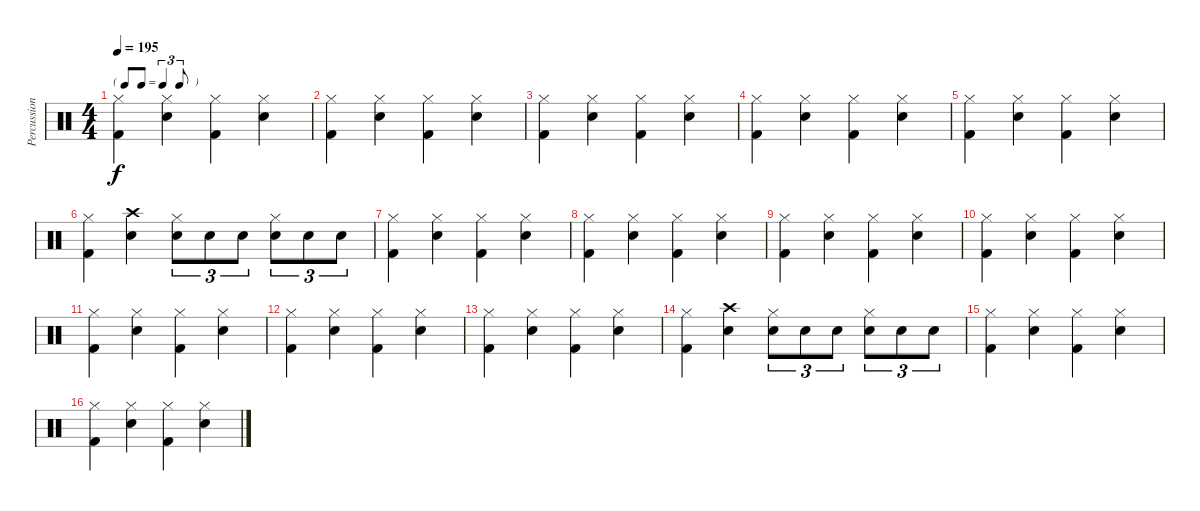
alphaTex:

\track ("Percussions" "Percussion") {instrument percussion}
\staff {score}
\articulation defaults
\ts (4 4)
\tf triplet8th
\tempo 195
\clef neutral
\ks c
("Hi-Hat (closed)" "Kick (hit) 2").4{dy f} ("Snare (hit) 2" "Hi-Hat (closed)").4 ("Hi-Hat (closed)" "Kick (hit) 2").4 ("Snare (hit) 2" "Hi-Hat (closed)").4 |
("Hi-Hat (closed)" "Kick (hit) 2").4 ("Snare (hit) 2" "Hi-Hat (closed)").4 ("Hi-Hat (closed)" "Kick (hit) 2").4 ("Snare (hit) 2" "Hi-Hat (closed)").4 |
("Hi-Hat (closed)" "Kick (hit) 2").4 ("Snare (hit) 2" "Hi-Hat (closed)").4 ("Hi-Hat (closed)" "Kick (hit) 2").4 ("Snare (hit) 2" "Hi-Hat (closed)").4 |
("Hi-Hat (closed)" "Kick (hit) 2").4 ("Snare (hit) 2" "Hi-Hat (closed)").4 ("Hi-Hat (closed)" "Kick (hit) 2").4 ("Snare (hit) 2" "Hi-Hat (closed)").4 |
("Hi-Hat (closed)" "Kick (hit) 2").4 ("Snare (hit) 2" "Hi-Hat (closed)").4 ("Hi-Hat (closed)" "Kick (hit) 2").4 ("Snare (hit) 2" "Hi-Hat (closed)").4 |
("Hi-Hat (closed)" "Kick (hit) 2").4 ("Snare (hit) 2" "Crash high (hit)").4 ("Snare (hit) 2" "Hi-Hat (closed)").8{tu (3 2)} "Snare (hit) 2".8{tu (3 2)} "Snare (hit) 2".8{tu (3 2)} ("Snare (hit) 2" "Hi-Hat (closed)").8{tu (3 2)} "Snare (hit) 2".8{tu (3 2)} "Snare (hit) 2".8{tu (3 2)} |
("Hi-Hat (closed)" "Kick (hit) 2").4 ("Snare (hit) 2" "Hi-Hat (closed)").4 ("Hi-Hat (closed)" "Kick (hit) 2").4 ("Snare (hit) 2" "Hi-Hat (closed)").4 |
("Hi-Hat (closed)" "Kick (hit) 2").4 ("Snare (hit) 2" "Hi-Hat (closed)").4 ("Hi-Hat (closed)" "Kick (hit) 2").4 ("Snare (hit) 2" "Hi-Hat (closed)").4 |
("Hi-Hat (closed)" "Kick (hit) 2").4 ("Snare (hit) 2" "Hi-Hat (closed)").4 ("Hi-Hat (closed)" "Kick (hit) 2").4 ("Snare (hit) 2" "Hi-Hat (closed)").4 |
("Hi-Hat (closed)" "Kick (hit) 2").4 ("Snare (hit) 2" "Hi-Hat (closed)").4 ("Hi-Hat (closed)" "Kick (hit) 2").4 ("Snare (hit) 2" "Hi-Hat (closed)").4 |
("Hi-Hat (closed)" "Kick (hit) 2").4 ("Snare (hit) 2" "Hi-Hat (closed)").4 ("Hi-Hat (closed)" "Kick (hit) 2").4 ("Snare (hit) 2" "Hi-Hat (closed)").4 |
("Hi-Hat (closed)" "Kick (hit) 2").4 ("Snare (hit) 2" "Hi-Hat (closed)").4 ("Hi-Hat (closed)" "Kick (hit) 2").4 ("Snare (hit) 2" "Hi-Hat (closed)").4 |
("Hi-Hat (closed)" "Kick (hit) 2").4 ("Snare (hit) 2" "Hi-Hat (closed)").4 ("Hi-Hat (closed)" "Kick (hit) 2").4 ("Snare (hit) 2" "Hi-Hat (closed)").4 |
("Hi-Hat (closed)" "Kick (hit) 2").4 ("Snare (hit) 2" "Crash high (hit)").4 ("Snare (hit) 2" "Hi-Hat (closed)").8{tu (3 2)} "Snare (hit) 2".8{tu (3 2)} "Snare (hit) 2".8{tu (3 2)} ("Snare (hit) 2" "Hi-Hat (closed)").8{tu (3 2)} "Snare (hit) 2".8{tu (3 2)} "Snare (hit) 2".8{tu (3 2)} |
("Hi-Hat (closed)" "Kick (hit) 2").4 ("Snare (hit) 2" "Hi-Hat (closed)").4 ("Hi-Hat (closed)" "Kick (hit) 2").4 ("Snare (hit) 2" "Hi-Hat (closed)").4 |
("Hi-Hat (closed)" "Kick (hit) 2").4 ("Snare (hit) 2" "Hi-Hat (closed)").4 ("Hi-Hat (closed)" "Kick (hit) 2").4 ("Snare (hit) 2" "Hi-Hat (closed)").4
